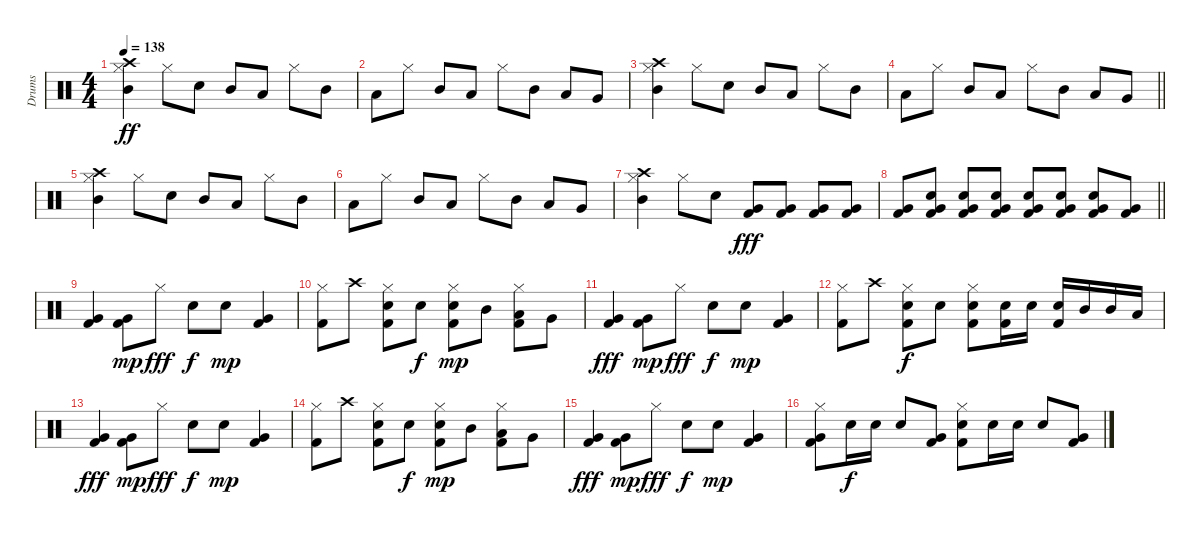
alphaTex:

\track ("Drums" "Drums") {instrument percussion}
\staff {score}
\articulation defaults
\ts (4 4)
\tempo 138
\clef neutral
\ks c
("Crash high (hit)" "Hi-Hat (closed)" "Mid Tom (hit)").4{dy ff} "Hi-Hat (closed)".8 "Electric Snare (hit)".8 "Mid Tom (hit)".8 "Low Tom (hit)".8 "Hi-Hat (closed)".8 "Mid Tom (hit)".8 |
"Low Tom (hit)".8 "Hi-Hat (closed)".8 "Mid Tom (hit)".8 "Low Tom (hit)".8 "Hi-Hat (closed)".8 "Mid Tom (hit)".8 "Low Tom (hit)".8 "Very Low Tom (hit)".8 |
("Crash high (hit)" "Hi-Hat (closed)" "Mid Tom (hit)").4 "Hi-Hat (closed)".8 "Electric Snare (hit)".8 "Mid Tom (hit)".8 "Low Tom (hit)".8 "Hi-Hat (closed)".8 "Mid Tom (hit)".8 |
\barLineRight lightlight "Low Tom (hit)".8 "Hi-Hat (closed)".8 "Mid Tom (hit)".8 "Low Tom (hit)".8 "Hi-Hat (closed)".8 "Mid Tom (hit)".8 "Low Tom (hit)".8 "Very Low Tom (hit)".8
|
("Crash high (hit)" "Hi-Hat (closed)" "Mid Tom (hit)").4 "Hi-Hat (closed)".8 "Electric Snare (hit)".8 "Mid Tom (hit)".8 "Low Tom (hit)".8 "Hi-Hat (closed)".8 "Mid Tom (hit)".8 |
"Low Tom (hit)".8 "Hi-Hat (closed)".8 "Mid Tom (hit)".8 "Low Tom (hit)".8 "Hi-Hat (closed)".8 "Mid Tom (hit)".8 "Low Tom (hit)".8 "Very Low Tom (hit)".8 |
("Crash high (hit)" "Hi-Hat (closed)" "Mid Tom (hit)").4 "Hi-Hat (closed)".8 "Electric Snare (hit)".8 ("Very Low Tom (hit)" "Kick (hit) 2").8{dy fff} ("Very Low Tom (hit)" "Kick (hit) 2").8 ("Very Low Tom (hit)" "Kick (hit) 2").8 ("Very Low Tom (hit)" "Kick (hit) 2").8 |
\barLineRight lightlight
("Very Low Tom (hit)" "Kick (hit) 2").8 ("Electric Snare (hit)" "Very Low Tom (hit)" "Kick (hit) 2").8 ("Electric Snare (hit)" "Very Low Tom (hit)" "Kick (hit) 2").8 ("Electric Snare (hit)" "Very Low Tom (hit)" "Kick (hit) 2").8 ("Electric Snare (hit)" "Very Low Tom (hit)" "Kick (hit) 2").8 ("Electric Snare (hit)" "Very Low Tom (hit)" "Kick (hit) 2").8 ("Electric Snare (hit)" "Very Low Tom (hit)" "Kick (hit) 2").8 ("Very Low Tom (hit)" "Kick (hit) 2").8 |
("Very Low Tom (hit)" "Kick (hit) 2").4 ("Very Low Tom (hit)" "Kick (hit) 2").8{dy mp} "Hi-Hat (closed)".8{dy fff} "Electric Snare (hit)".8{dy f} "Electric Snare (hit)".8{dy mp} ("Very Low Tom (hit)" "Kick (hit) 2").4 |
("Hi-Hat (closed)" "Kick (hit) 2").8 "Crash high (hit)".8 ("Hi-Hat (closed)" "Electric Snare (hit)" "Kick (hit) 2").8 "Electric Snare (hit)".8{dy f} ("Hi-Hat (closed)" "Electric Snare (hit)" "Kick (hit) 2").8{dy mp} "Mid Tom (hit)".8 ("Hi-Hat (closed)" "Low Tom (hit)" "Kick (hit) 2").8 "Very Low Tom (hit)".8 |
("Very Low Tom (hit)" "Kick (hit) 2").4{dy fff} ("Very Low Tom (hit)" "Kick (hit) 2").8{dy mp} "Hi-Hat (closed)".8{dy fff} "Electric Snare (hit)".8{dy f} "Electric Snare (hit)".8{dy mp} ("Very Low Tom (hit)" "Kick (hit) 2").4 |
("Hi-Hat (closed)" "Kick (hit) 2").8 "Crash high (hit)".8 ("Hi-Hat (closed)" "Electric Snare (hit)" "Kick (hit) 2").8{dy f} "Electric Snare (hit)".8 ("Hi-Hat (closed)" "Electric Snare (hit)" "Kick (hit) 2").8 ("Electric Snare (hit)" "Kick (hit) 2").16 "Electric Snare (hit)".16 ("Electric Snare (hit)" "Kick (hit) 2").16 "Mid Tom (hit)".16 "Mid Tom (hit)".16 "Low Tom (hit)".16 |
("Very Low Tom (hit)" "Kick (hit) 2").4{dy fff} ("Very Low Tom (hit)" "Kick (hit) 2").8{dy mp} "Hi-Hat (closed)".8{dy fff} "Electric Snare (hit)".8{dy f} "Electric Snare (hit)".8{dy mp} ("Very Low Tom (hit)" "Kick (hit) 2").4 |
("Hi-Hat (closed)" "Kick (hit) 2").8 "Crash high (hit)".8 ("Hi-Hat (closed)" "Electric Snare (hit)" "Kick (hit) 2").8 "Electric Snare (hit)".8{dy f} ("Hi-Hat (closed)" "Electric Snare (hit)" "Kick (hit) 2").8{dy mp} "Mid Tom (hit)".8 ("Hi-Hat (closed)" "Low Tom (hit)" "Kick (hit) 2").8 "Very Low Tom (hit)".8 |
("Very Low Tom (hit)" "Kick (hit) 2").4{dy fff} ("Very Low Tom (hit)" "Kick (hit) 2").8{dy mp} "Hi-Hat (closed)".8{dy fff} "Electric Snare (hit)".8{dy f} "Electric Snare (hit)".8{dy mp} ("Very Low Tom (hit)" "Kick (hit) 2").4 |
("Hi-Hat (closed)" "Very Low Tom (hit)" "Kick (hit) 2").8 "Electric Snare (hit)".16{dy f} "Electric Snare (hit)".16 "Electric Snare (hit)".8 ("Very Low Tom (hit)" "Kick (hit) 2").8 ("Hi-Hat (closed)" "Electric Snare (hit)" "Kick (hit) 2").8 "Electric Snare (hit)".16 "Electric Snare (hit)".16 "Electric Snare (hit)".8 ("Very Low Tom (hit)" "Kick (hit) 2").8
